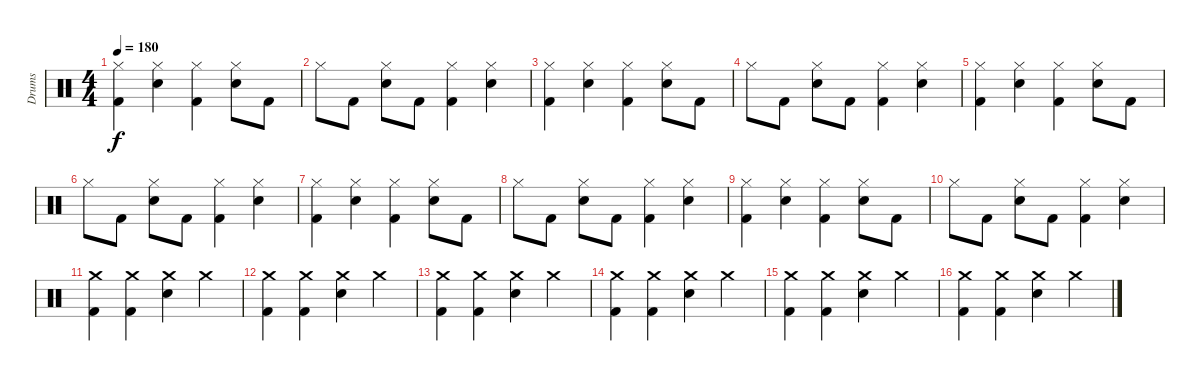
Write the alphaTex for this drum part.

\track ("Drums" "Drums") {instrument percussion}
\staff {score}
\articulation defaults
\ts (4 4)
\tempo 180
\clef neutral
\ks c
("Hi-Hat (closed)" "Kick (hit) 2").4{dy f} ("Hi-Hat (closed)" "Snare (hit) 2").4 ("Hi-Hat (closed)" "Kick (hit) 2").4 ("Hi-Hat (closed)" "Snare (hit) 2").8 "Kick (hit) 2".8 |
"Hi-Hat (closed)".8 "Kick (hit) 2".8 ("Hi-Hat (closed)" "Snare (hit) 2").8 "Kick (hit) 2".8 ("Hi-Hat (closed)" "Kick (hit) 2").4 ("Hi-Hat (closed)" "Snare (hit) 2").4 |
("Hi-Hat (closed)" "Kick (hit) 2").4 ("Hi-Hat (closed)" "Snare (hit) 2").4 ("Hi-Hat (closed)" "Kick (hit) 2").4 ("Hi-Hat (closed)" "Snare (hit) 2").8 "Kick (hit) 2".8 |
"Hi-Hat (closed)".8 "Kick (hit) 2".8 ("Hi-Hat (closed)" "Snare (hit) 2").8 "Kick (hit) 2".8 ("Hi-Hat (closed)" "Kick (hit) 2").4 ("Hi-Hat (closed)" "Snare (hit) 2").4 |
("Hi-Hat (closed)" "Kick (hit) 2").4 ("Hi-Hat (closed)" "Snare (hit) 2").4 ("Hi-Hat (closed)" "Kick (hit) 2").4 ("Hi-Hat (closed)" "Snare (hit) 2").8 "Kick (hit) 2".8 |
"Hi-Hat (closed)".8 "Kick (hit) 2".8 ("Hi-Hat (closed)" "Snare (hit) 2").8 "Kick (hit) 2".8 ("Hi-Hat (closed)" "Kick (hit) 2").4 ("Hi-Hat (closed)" "Snare (hit) 2").4 |
("Hi-Hat (closed)" "Kick (hit) 2").4 ("Hi-Hat (closed)" "Snare (hit) 2").4 ("Hi-Hat (closed)" "Kick (hit) 2").4 ("Hi-Hat (closed)" "Snare (hit) 2").8 "Kick (hit) 2".8 |
"Hi-Hat (closed)".8 "Kick (hit) 2".8 ("Hi-Hat (closed)" "Snare (hit) 2").8 "Kick (hit) 2".8 ("Hi-Hat (closed)" "Kick (hit) 2").4 ("Hi-Hat (closed)" "Snare (hit) 2").4 |
("Hi-Hat (closed)" "Kick (hit) 2").4 ("Hi-Hat (closed)" "Snare (hit) 2").4 ("Hi-Hat (closed)" "Kick (hit) 2").4 ("Hi-Hat (closed)" "Snare (hit) 2").8 "Kick (hit) 2".8 |
"Hi-Hat (closed)".8 "Kick (hit) 2".8 ("Hi-Hat (closed)" "Snare (hit) 2").8 "Kick (hit) 2".8 ("Hi-Hat (closed)" "Kick (hit) 2").4 ("Hi-Hat (closed)" "Snare (hit) 2").4 |
("Crash medium (hit)" "Kick (hit) 2").4 ("Crash medium (hit)" "Kick (hit) 2").4 ("Crash medium (hit)" "Snare (hit) 2").4 "Crash medium (hit)".4 |
("Crash medium (hit)" "Kick (hit) 2").4 ("Crash medium (hit)" "Kick (hit) 2").4 ("Crash medium (hit)" "Snare (hit) 2").4 "Crash medium (hit)".4 |
("Crash medium (hit)" "Kick (hit) 2").4 ("Crash medium (hit)" "Kick (hit) 2").4 ("Crash medium (hit)" "Snare (hit) 2").4 "Crash medium (hit)".4 |
("Crash medium (hit)" "Kick (hit) 2").4 ("Crash medium (hit)" "Kick (hit) 2").4 ("Crash medium (hit)" "Snare (hit) 2").4 "Crash medium (hit)".4 |
("Crash medium (hit)" "Kick (hit) 2").4 ("Crash medium (hit)" "Kick (hit) 2").4 ("Crash medium (hit)" "Snare (hit) 2").4 "Crash medium (hit)".4 |
("Crash medium (hit)" "Kick (hit) 2").4 ("Crash medium (hit)" "Kick (hit) 2").4 ("Crash medium (hit)" "Snare (hit) 2").4 "Crash medium (hit)".4
